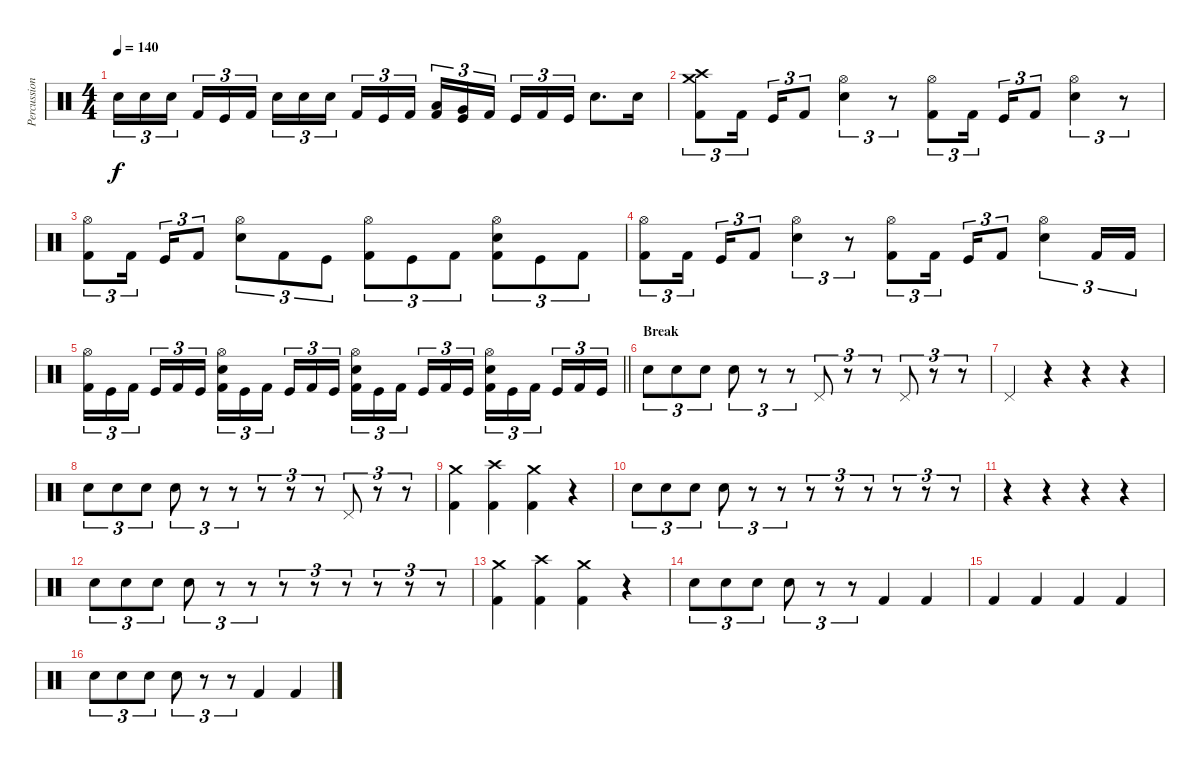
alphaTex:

\track ("Percussion" "Percussion") {instrument percussion}
\staff {score}
\articulation defaults
\ts (4 4)
\tempo 140
\clef neutral
\ks c "Snare (hit) 2".16{tu (3 2) dy f} "Snare (hit) 2".16{tu (3 2)} "Snare (hit) 2".16{tu (3 2) beam splitsecondary} "Kick (hit) 2".16{tu (3 2)} "Kick (hit)".16{tu (3 2)} "Kick (hit) 2".16{tu (3 2)} "Snare (hit) 2".16{tu (3 2)} "Snare (hit) 2".16{tu (3 2)} "Snare (hit) 2".16{tu (3 2) beam splitsecondary} "Kick (hit) 2".16{tu (3 2)} "Kick (hit)".16{tu (3 2)} "Kick (hit) 2".16{tu (3 2)}
("Low Tom (hit)" "Kick (hit) 2").16{tu (3 2)} ("Very Low Tom (hit)" "Kick (hit)").16{tu (3 2)} "Kick (hit) 2".16{tu (3 2) beam splitsecondary} "Kick (hit)".16{tu (3 2)} "Kick (hit) 2".16{tu (3 2)} "Kick (hit)".16{tu (3 2)} "Snare (hit) 2".8{d} "Snare (hit) 2".16 |
("Crash medium (hit)" "Crash high (hit)" "Kick (hit) 2").8{tu (3 2)} "Kick (hit) 2".16{tu (3 2) beam splitsecondary} "Kick (hit)".16{tu (3 2)} "Kick (hit) 2".8{tu (3 2)} ("Hi-Hat (open)" "Snare (hit) 2").4{tu (3 2)} r.8{tu (3 2)} ("Hi-Hat (open)" "Kick (hit) 2").8{tu (3 2)} "Kick (hit) 2".16{tu (3 2) beam splitsecondary} "Kick (hit)".16{tu (3 2)} "Kick (hit) 2".8{tu (3 2)} ("Hi-Hat (open)" "Snare (hit) 2").4{tu (3 2)} r.8{tu (3 2)} |
("Hi-Hat (open)" "Kick (hit) 2").8{tu (3 2)} "Kick (hit) 2".16{tu (3 2) beam splitsecondary} "Kick (hit)".16{tu (3 2)} "Kick (hit) 2".8{tu (3 2)} ("Hi-Hat (open)" "Snare (hit) 2").8{tu (3 2)} "Kick (hit) 2".8{tu (3 2)} "Kick (hit)".8{tu (3 2)} ("Hi-Hat (open)" "Kick (hit) 2").8{tu (3 2)} "Kick (hit)".8{tu (3 2)} "Kick (hit) 2".8{tu (3 2)} ("Hi-Hat (open)" "Snare (hit) 2" "Kick (hit) 2").8{tu (3 2)} "Kick (hit)".8{tu (3 2)} "Kick (hit) 2".8{tu (3 2)} |
("Hi-Hat (open)" "Kick (hit) 2").8{tu (3 2)} "Kick (hit) 2".16{tu (3 2) beam splitsecondary} "Kick (hit)".16{tu (3 2)} "Kick (hit) 2".8{tu (3 2)} ("Hi-Hat (open)" "Snare (hit) 2").4{tu (3 2)} r.8{tu (3 2)} ("Hi-Hat (open)" "Kick (hit) 2").8{tu (3 2)} "Kick (hit) 2".16{tu (3 2) beam splitsecondary} "Kick (hit)".16{tu (3 2)} "Kick (hit) 2".8{tu (3 2)} ("Hi-Hat (open)" "Snare (hit) 2").4{tu (3 2)} "Kick (hit) 2".16{tu (3 2)} "Kick (hit) 2".16{tu (3 2)} |
\barLineRight lightlight
("Hi-Hat (open)" "Kick (hit) 2").16{tu (3 2)} "Kick (hit)".16{tu (3 2)} "Kick (hit) 2".16{tu (3 2) beam splitsecondary} "Kick (hit)".16{tu (3 2)} "Kick (hit) 2".16{tu (3 2)} "Kick (hit)".16{tu (3 2)} ("Hi-Hat (open)" "Snare (hit) 2" "Kick (hit) 2").16{tu (3 2)} "Kick (hit)".16{tu (3 2)} "Kick (hit) 2".16{tu (3 2) beam splitsecondary} "Kick (hit)".16{tu (3 2)} "Kick (hit) 2".16{tu (3 2)} "Kick (hit)".16{tu (3 2)} ("Hi-Hat (open)" "Snare (hit) 2" "Kick (hit) 2").16{tu (3 2)} "Kick (hit)".16{tu (3 2)} "Kick (hit) 2".16{tu (3 2) beam splitsecondary} "Kick (hit)".16{tu (3 2)} "Kick (hit) 2".16{tu (3 2)} "Kick (hit)".16{tu (3 2)} ("Hi-Hat (open)" "Snare (hit) 2" "Kick (hit) 2").16{tu (3 2)} "Kick (hit)".16{tu (3 2)} "Kick (hit) 2".16{tu (3 2) beam splitsecondary} "Kick (hit)".16{tu (3 2)} "Kick (hit) 2".16{tu (3 2)} "Kick (hit)".16{tu (3 2)} |
\section ("" "Break")
"Snare (hit) 2".8{tu (3 2)} "Snare (hit) 2".8{tu (3 2)} "Snare (hit) 2".8{tu (3 2)} "Snare (hit) 2".8{tu (3 2)} r.8{tu (3 2)} r.8{tu (3 2)} "Pedal Hi-Hat (hit)".8{tu (3 2)} r.8{tu (3 2)} r.8{tu (3 2)} "Pedal Hi-Hat (hit)".8{tu (3 2)} r.8{tu (3 2)} r.8{tu (3 2)} |
"Pedal Hi-Hat (hit)".4 r.4 r.4 r.4 |
"Snare (hit) 2".8{tu (3 2)} "Snare (hit) 2".8{tu (3 2)} "Snare (hit) 2".8{tu (3 2)} "Snare (hit) 2".8{tu (3 2)} r.8{tu (3 2)} r.8{tu (3 2)} r.8{tu (3 2)} r.8{tu (3 2)} r.8{tu (3 2)} "Pedal Hi-Hat (hit)".8{tu (3 2)} r.8{tu (3 2)} r.8{tu (3 2)} |
("Crash medium (hit)" "Kick (hit) 2").4 ("Crash high (hit)" "Kick (hit) 2").4 ("Crash medium (hit)" "Kick (hit) 2").4 r.4 |
"Snare (hit) 2".8{tu (3 2)} "Snare (hit) 2".8{tu (3 2)} "Snare (hit) 2".8{tu (3 2)} "Snare (hit) 2".8{tu (3 2)} r.8{tu (3 2)} r.8{tu (3 2)} r.8{tu (3 2)} r.8{tu (3 2)} r.8{tu (3 2)} r.8{tu (3 2)} r.8{tu (3 2)} r.8{tu (3 2)} |
r.4 r.4 r.4 r.4 |
"Snare (hit) 2".8{tu (3 2)} "Snare (hit) 2".8{tu (3 2)} "Snare (hit) 2".8{tu (3 2)} "Snare (hit) 2".8{tu (3 2)} r.8{tu (3 2)} r.8{tu (3 2)} r.8{tu (3 2)} r.8{tu (3 2)} r.8{tu (3 2)} r.8{tu (3 2)} r.8{tu (3 2)} r.8{tu (3 2)} |
("Crash medium (hit)" "Kick (hit) 2").4 ("Crash high (hit)" "Kick (hit) 2").4 ("Crash medium (hit)" "Kick (hit) 2").4 r.4 |
"Snare (hit) 2".8{tu (3 2)} "Snare (hit) 2".8{tu (3 2)} "Snare (hit) 2".8{tu (3 2)} "Snare (hit) 2".8{tu (3 2)} r.8{tu (3 2)} r.8{tu (3 2)} "Kick (hit) 2".4 "Kick (hit) 2".4 |
"Kick (hit) 2".4 "Kick (hit) 2".4 "Kick (hit) 2".4 "Kick (hit) 2".4 |
"Snare (hit) 2".8{tu (3 2)} "Snare (hit) 2".8{tu (3 2)} "Snare (hit) 2".8{tu (3 2)} "Snare (hit) 2".8{tu (3 2)} r.8{tu (3 2)} r.8{tu (3 2)} "Kick (hit) 2".4 "Kick (hit) 2".4
